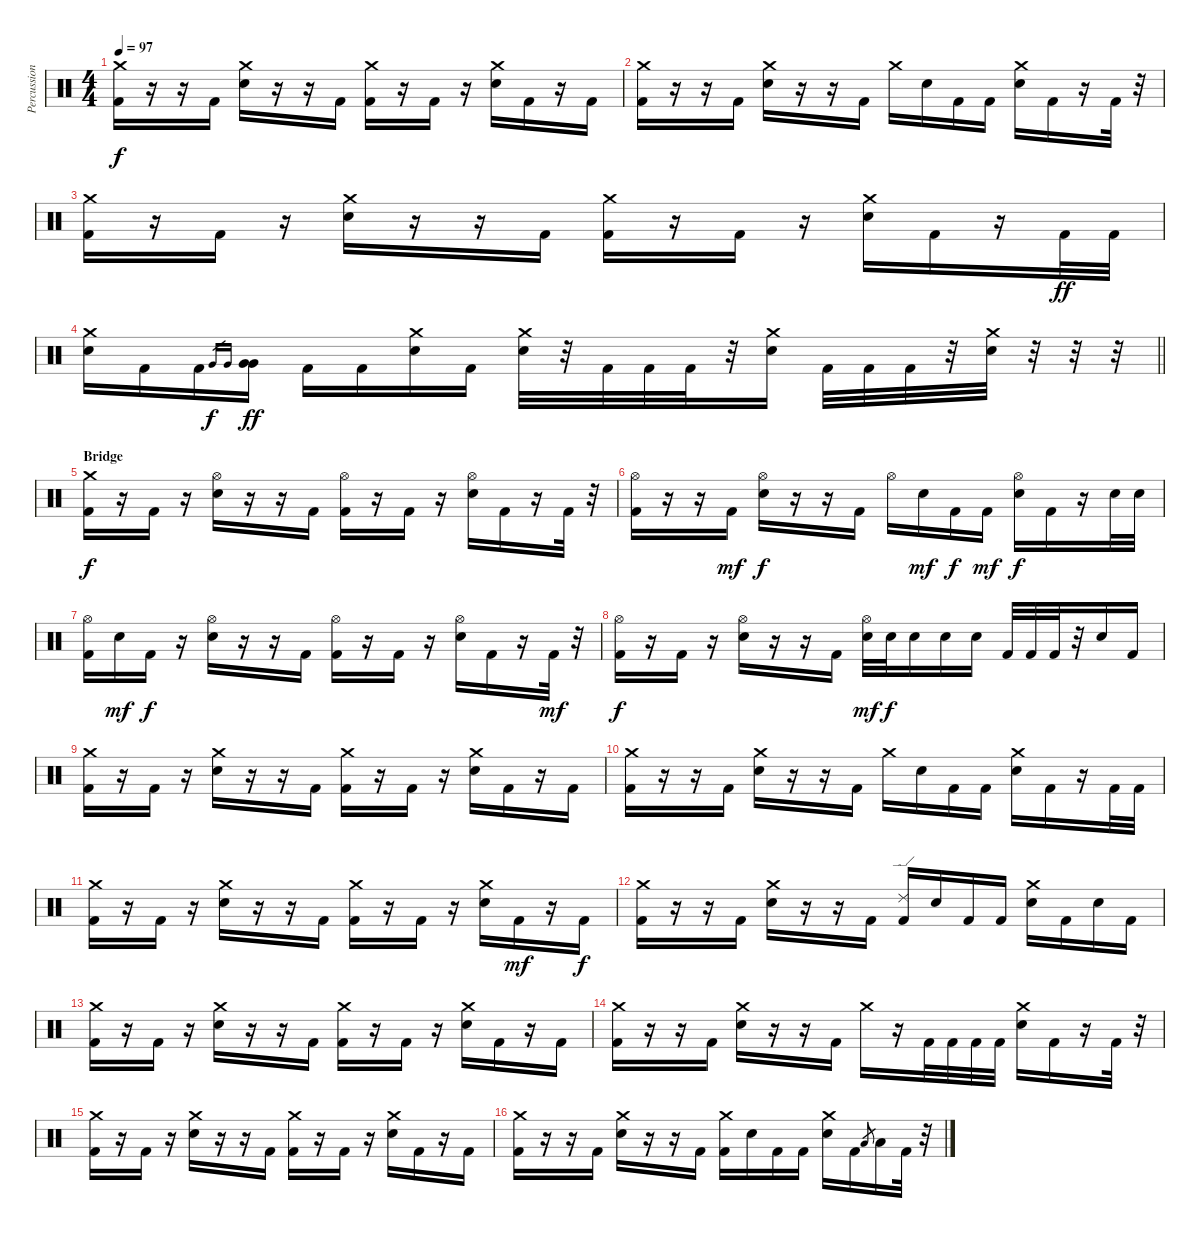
\track ("Percussion" "Percussion") {instrument percussion}
\staff {score}
\articulation defaults
\ts (4 4)
\tempo 97
\clef neutral
\ks c
("Crash medium (hit)" "Kick (hit) 2").16{dy f} r.16 r.16 "Kick (hit) 2".16 ("Crash medium (hit)" "Electric Snare (hit)").16 r.16 r.16 "Kick (hit) 2".16 ("Crash medium (hit)" "Kick (hit) 2").16 r.16 "Kick (hit) 2".16 r.16 ("Crash medium (hit)" "Electric Snare (hit)").16 "Kick (hit) 2".16 r.16 "Kick (hit) 2".16 |
("Crash medium (hit)" "Kick (hit) 2").16 r.16 r.16 "Kick (hit) 2".16 ("Crash medium (hit)" "Electric Snare (hit)").16 r.16 r.16 "Kick (hit) 2".16 "Crash medium (hit)".16 "Electric Snare (hit)".16 "Kick (hit) 2".16 "Kick (hit) 2".16 ("Crash medium (hit)" "Electric Snare (hit)").16 "Kick (hit) 2".16 r.16 "Kick (hit) 2".32 r.32 |
("Crash medium (hit)" "Kick (hit) 2").16 r.16 "Kick (hit) 2".16 r.16 ("Crash medium (hit)" "Electric Snare (hit)").16 r.16 r.16 "Kick (hit) 2".16 ("Crash medium (hit)" "Kick (hit) 2").16 r.16 "Kick (hit) 2".16 r.16 ("Crash medium (hit)" "Electric Snare (hit)").16 "Kick (hit) 2".16 r.16 "Kick (hit) 2".32{dy ff} "Kick (hit) 2".32 |
\barLineRight lightlight
("Crash medium (hit)" "Electric Snare (hit)").16 "Kick (hit) 2".16 "Kick (hit) 2".16 "Very Low Tom (hit)".16{gr dy f} "Very Low Tom (hit)".16{gr} ("Very Low Tom (hit)" "Very Low Tom (hit)").16{dy ff} "Kick (hit) 2".16 "Kick (hit) 2".16 ("Crash medium (hit)" "Electric Snare (hit)").16 "Kick (hit) 2".16 ("Crash medium (hit)" "Electric Snare (hit)").32 r.32 "Kick (hit) 2".32 "Kick (hit) 2".32 "Kick (hit) 2".32 r.32 ("Crash medium (hit)" "Electric Snare (hit)").16 "Kick (hit) 2".32 "Kick (hit) 2".32 "Kick (hit) 2".32 r.32 ("Crash medium (hit)" "Electric Snare (hit)").32 r.32 r.32 r.32 |
\section ("" "Bridge")
("Crash medium (hit)" "Kick (hit) 2").16{dy f} r.16 "Kick (hit) 2".16 r.16 ("Hi-Hat (open)" "Electric Snare (hit)").16 r.16 r.16 "Kick (hit) 2".16 ("Hi-Hat (open)" "Kick (hit) 2").16 r.16 "Kick (hit) 2".16 r.16 ("Hi-Hat (open)" "Electric Snare (hit)").16 "Kick (hit) 2".16 r.16 "Kick (hit) 2".32 r.32 |
("Hi-Hat (open)" "Kick (hit) 2").16 r.16 r.16 "Kick (hit) 2".16{dy mf} ("Hi-Hat (open)" "Electric Snare (hit)").16{dy f} r.16 r.16 "Kick (hit) 2".16 "Hi-Hat (open)".16 "Electric Snare (hit)".16{dy mf} "Kick (hit) 2".16{dy f} "Kick (hit) 2".16{dy mf} ("Hi-Hat (open)" "Electric Snare (hit)").16{dy f} "Kick (hit) 2".16 r.16 "Electric Snare (hit)".32 "Electric Snare (hit)".32 |
("Hi-Hat (open)" "Kick (hit) 2").16 "Electric Snare (hit)".16{dy mf} "Kick (hit) 2".16{dy f} r.16 ("Hi-Hat (open)" "Electric Snare (hit)").16 r.16 r.16 "Kick (hit) 2".16 ("Hi-Hat (open)" "Kick (hit) 2").16 r.16 "Kick (hit) 2".16 r.16 ("Hi-Hat (open)" "Electric Snare (hit)").16 "Kick (hit) 2".16 r.16 "Kick (hit) 2".32{dy mf} r.32 |
("Hi-Hat (open)" "Kick (hit) 2").16{dy f} r.16 "Kick (hit) 2".16 r.16 ("Hi-Hat (open)" "Electric Snare (hit)").16 r.16 r.16 "Kick (hit) 2".16 ("Hi-Hat (open)" "Electric Snare (hit)").32{dy mf} "Electric Snare (hit)".32{dy f} "Electric Snare (hit)".16 "Electric Snare (hit)".16 "Electric Snare (hit)".16 "Kick (hit) 2".32 "Kick (hit) 2".32 "Kick (hit) 2".32 r.32 "Electric Snare (hit)".16 "Kick (hit) 2".16 |
("Crash medium (hit)" "Kick (hit) 2").16 r.16 "Kick (hit) 2".16 r.16 ("Crash medium (hit)" "Electric Snare (hit)").16 r.16 r.16 "Kick (hit) 2".16 ("Crash medium (hit)" "Kick (hit) 2").16 r.16 "Kick (hit) 2".16 r.16 ("Crash medium (hit)" "Electric Snare (hit)").16 "Kick (hit) 2".16 r.16 "Kick (hit) 2".16 |
("Crash medium (hit)" "Kick (hit) 2").16 r.16 r.16 "Kick (hit) 2".16 ("Crash medium (hit)" "Electric Snare (hit)").16 r.16 r.16 "Kick (hit) 2".16 "Crash medium (hit)".16 "Electric Snare (hit)".16 "Kick (hit) 2".16 "Kick (hit) 2".16 ("Crash medium (hit)" "Electric Snare (hit)").16 "Kick (hit) 2".16 r.16 "Kick (hit) 2".32 "Kick (hit) 2".32 |
("Crash medium (hit)" "Kick (hit) 2").16 r.16 "Kick (hit) 2".16 r.16 ("Crash medium (hit)" "Electric Snare (hit)").16 r.16 r.16 "Kick (hit) 2".16 ("Crash medium (hit)" "Kick (hit) 2").16 r.16 "Kick (hit) 2".16 r.16 ("Crash medium (hit)" "Electric Snare (hit)").16 "Kick (hit) 2".16{dy mf} r.16 "Kick (hit) 2".16{dy f} |
("Crash medium (hit)" "Kick (hit) 2").16 r.16 r.16 "Kick (hit) 2".16 ("Crash medium (hit)" "Electric Snare (hit)").16 r.16 r.16 "Kick (hit) 2".16 ("Ride (edge) 2" "Kick (hit) 2").16 "Electric Snare (hit)".16 "Kick (hit) 2".16 "Kick (hit) 2".16 ("Crash medium (hit)" "Electric Snare (hit)").16 "Kick (hit) 2".16 "Electric Snare (hit)".16 "Kick (hit) 2".16 |
("Crash medium (hit)" "Kick (hit) 2").16 r.16 "Kick (hit) 2".16 r.16 ("Crash medium (hit)" "Electric Snare (hit)").16 r.16 r.16 "Kick (hit) 2".16 ("Crash medium (hit)" "Kick (hit) 2").16 r.16 "Kick (hit) 2".16 r.16 ("Crash medium (hit)" "Electric Snare (hit)").16 "Kick (hit) 2".16 r.16 "Kick (hit) 2".16 |
("Crash medium (hit)" "Kick (hit) 2").16 r.16 r.16 "Kick (hit) 2".16 ("Crash medium (hit)" "Electric Snare (hit)").16 r.16 r.16 "Kick (hit) 2".16 "Crash medium (hit)".16 r.16 "Kick (hit) 2".32 "Kick (hit) 2".32 "Kick (hit) 2".32 "Kick (hit) 2".32 ("Crash medium (hit)" "Electric Snare (hit)").16 "Kick (hit) 2".16 r.16 "Kick (hit) 2".32 r.32 |
("Crash medium (hit)" "Kick (hit) 2").16 r.16 "Kick (hit) 2".16 r.16 ("Crash medium (hit)" "Electric Snare (hit)").16 r.16 r.16 "Kick (hit) 2".16 ("Crash medium (hit)" "Kick (hit) 2").16 r.16 "Kick (hit) 2".16 r.16 ("Crash medium (hit)" "Electric Snare (hit)").16 "Kick (hit) 2".16 r.16 "Kick (hit) 2".16 |
("Crash medium (hit)" "Kick (hit) 2").16 r.16 r.16 "Kick (hit) 2".16 ("Crash medium (hit)" "Electric Snare (hit)").16 r.16 r.16 "Kick (hit) 2".16 ("Crash medium (hit)" "Kick (hit) 2").16 "Electric Snare (hit)".16 "Kick (hit) 2".16 "Kick (hit) 2".16 ("Crash medium (hit)" "Electric Snare (hit)").16 "Kick (hit) 2".16 "Low Tom (hit)".8{gr} "Low Tom (hit)".16 "Kick (hit) 2".32 r.32
